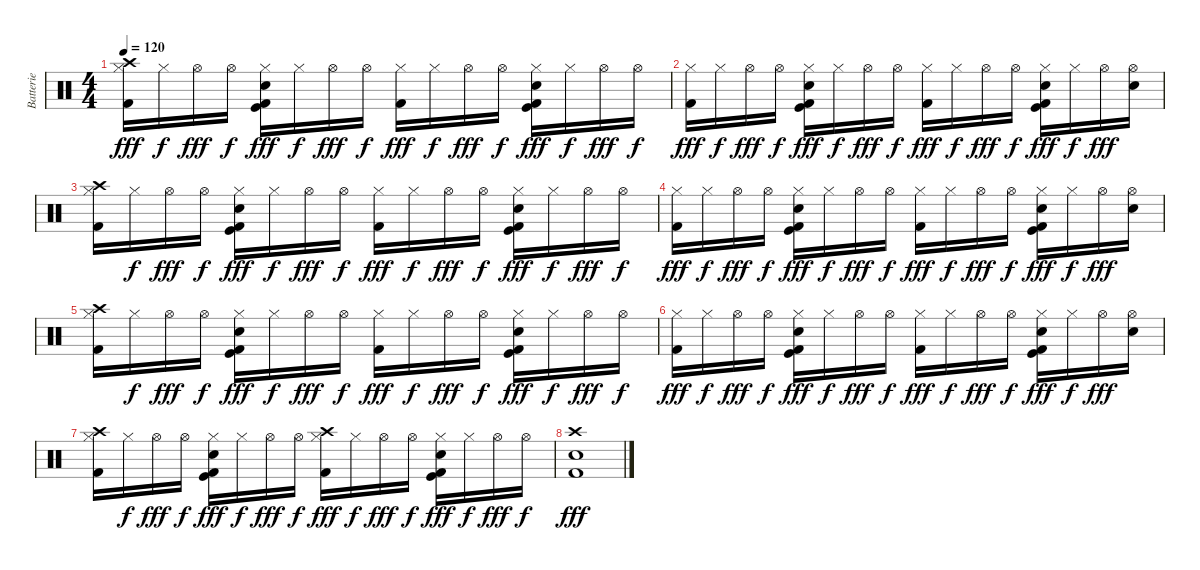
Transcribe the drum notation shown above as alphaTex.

\track ("Batterie" "Batterie") {instrument percussion}
\staff {score}
\articulation defaults
\ts (4 4)
\tempo 120
\clef neutral
\ks c
("Hi-Hat (closed)" "Crash high (hit)" "Kick (hit) 2").16{dy fff} "Hi-Hat (closed)".16{dy f} "Hi-Hat (open)".16{dy fff} "Hi-Hat (open)".16{dy f} ("Hi-Hat (closed)" "Electric Snare (hit)" "Kick (hit)" "Kick (hit) 2").16{dy fff} "Hi-Hat (closed)".16{dy f} "Hi-Hat (open)".16{dy fff} "Hi-Hat (open)".16{dy f} ("Hi-Hat (closed)" "Kick (hit) 2").16{dy fff} "Hi-Hat (closed)".16{dy f} "Hi-Hat (open)".16{dy fff} "Hi-Hat (open)".16{dy f} ("Hi-Hat (closed)" "Electric Snare (hit)" "Kick (hit)" "Kick (hit) 2").16{dy fff} "Hi-Hat (closed)".16{dy f} "Hi-Hat (open)".16{dy fff} "Hi-Hat (open)".16{dy f} |
("Hi-Hat (closed)" "Kick (hit) 2").16{dy fff} "Hi-Hat (closed)".16{dy f} "Hi-Hat (open)".16{dy fff} "Hi-Hat (open)".16{dy f} ("Hi-Hat (closed)" "Electric Snare (hit)" "Kick (hit) 2" "Kick (hit)").16{dy fff} "Hi-Hat (closed)".16{dy f} "Hi-Hat (open)".16{dy fff} "Hi-Hat (open)".16{dy f} ("Hi-Hat (closed)" "Kick (hit) 2").16{dy fff} "Hi-Hat (closed)".16{dy f} "Hi-Hat (open)".16{dy fff} "Hi-Hat (open)".16{dy f} ("Hi-Hat (closed)" "Electric Snare (hit)" "Kick (hit)" "Kick (hit) 2").16{dy fff} "Hi-Hat (closed)".16{dy f} "Hi-Hat (open)".16{dy fff} ("Hi-Hat (open)" "Electric Snare (hit)").16 |
("Hi-Hat (closed)" "Crash high (hit)" "Kick (hit) 2").16 "Hi-Hat (closed)".16{dy f} "Hi-Hat (open)".16{dy fff} "Hi-Hat (open)".16{dy f} ("Hi-Hat (closed)" "Electric Snare (hit)" "Kick (hit)" "Kick (hit) 2").16{dy fff} "Hi-Hat (closed)".16{dy f} "Hi-Hat (open)".16{dy fff} "Hi-Hat (open)".16{dy f} ("Hi-Hat (closed)" "Kick (hit) 2").16{dy fff} "Hi-Hat (closed)".16{dy f} "Hi-Hat (open)".16{dy fff} "Hi-Hat (open)".16{dy f} ("Hi-Hat (closed)" "Electric Snare (hit)" "Kick (hit)" "Kick (hit) 2").16{dy fff} "Hi-Hat (closed)".16{dy f} "Hi-Hat (open)".16{dy fff} "Hi-Hat (open)".16{dy f} |
("Hi-Hat (closed)" "Kick (hit) 2").16{dy fff} "Hi-Hat (closed)".16{dy f} "Hi-Hat (open)".16{dy fff} "Hi-Hat (open)".16{dy f} ("Hi-Hat (closed)" "Electric Snare (hit)" "Kick (hit) 2" "Kick (hit)").16{dy fff} "Hi-Hat (closed)".16{dy f} "Hi-Hat (open)".16{dy fff} "Hi-Hat (open)".16{dy f} ("Hi-Hat (closed)" "Kick (hit) 2").16{dy fff} "Hi-Hat (closed)".16{dy f} "Hi-Hat (open)".16{dy fff} "Hi-Hat (open)".16{dy f} ("Hi-Hat (closed)" "Electric Snare (hit)" "Kick (hit)" "Kick (hit) 2").16{dy fff} "Hi-Hat (closed)".16{dy f} "Hi-Hat (open)".16{dy fff} ("Hi-Hat (open)" "Electric Snare (hit)").16 |
("Hi-Hat (closed)" "Crash high (hit)" "Kick (hit) 2").16 "Hi-Hat (closed)".16{dy f} "Hi-Hat (open)".16{dy fff} "Hi-Hat (open)".16{dy f} ("Hi-Hat (closed)" "Electric Snare (hit)" "Kick (hit)" "Kick (hit) 2").16{dy fff} "Hi-Hat (closed)".16{dy f} "Hi-Hat (open)".16{dy fff} "Hi-Hat (open)".16{dy f} ("Hi-Hat (closed)" "Kick (hit) 2").16{dy fff} "Hi-Hat (closed)".16{dy f} "Hi-Hat (open)".16{dy fff} "Hi-Hat (open)".16{dy f} ("Hi-Hat (closed)" "Electric Snare (hit)" "Kick (hit)" "Kick (hit) 2").16{dy fff} "Hi-Hat (closed)".16{dy f} "Hi-Hat (open)".16{dy fff} "Hi-Hat (open)".16{dy f} |
("Hi-Hat (closed)" "Kick (hit) 2").16{dy fff} "Hi-Hat (closed)".16{dy f} "Hi-Hat (open)".16{dy fff} "Hi-Hat (open)".16{dy f} ("Hi-Hat (closed)" "Electric Snare (hit)" "Kick (hit) 2" "Kick (hit)").16{dy fff} "Hi-Hat (closed)".16{dy f} "Hi-Hat (open)".16{dy fff} "Hi-Hat (open)".16{dy f} ("Hi-Hat (closed)" "Kick (hit) 2").16{dy fff} "Hi-Hat (closed)".16{dy f} "Hi-Hat (open)".16{dy fff} "Hi-Hat (open)".16{dy f} ("Hi-Hat (closed)" "Electric Snare (hit)" "Kick (hit)" "Kick (hit) 2").16{dy fff} "Hi-Hat (closed)".16{dy f} "Hi-Hat (open)".16{dy fff} ("Hi-Hat (open)" "Electric Snare (hit)").16 |
("Hi-Hat (closed)" "Crash high (hit)" "Kick (hit) 2").16 "Hi-Hat (closed)".16{dy f} "Hi-Hat (open)".16{dy fff} "Hi-Hat (open)".16{dy f} ("Hi-Hat (closed)" "Electric Snare (hit)" "Kick (hit)" "Kick (hit) 2").16{dy fff} "Hi-Hat (closed)".16{dy f} "Hi-Hat (open)".16{dy fff} "Hi-Hat (open)".16{dy f} ("Hi-Hat (closed)" "Crash high (hit)" "Kick (hit) 2").16{dy fff} "Hi-Hat (closed)".16{dy f} "Hi-Hat (open)".16{dy fff} "Hi-Hat (open)".16{dy f} ("Hi-Hat (closed)" "Electric Snare (hit)" "Kick (hit)" "Kick (hit) 2").16{dy fff} "Hi-Hat (closed)".16{dy f} "Hi-Hat (open)".16{dy fff} "Hi-Hat (open)".16{dy f} |
("Crash high (hit)" "Electric Snare (hit)" "Kick (hit) 2").1{dy fff}
